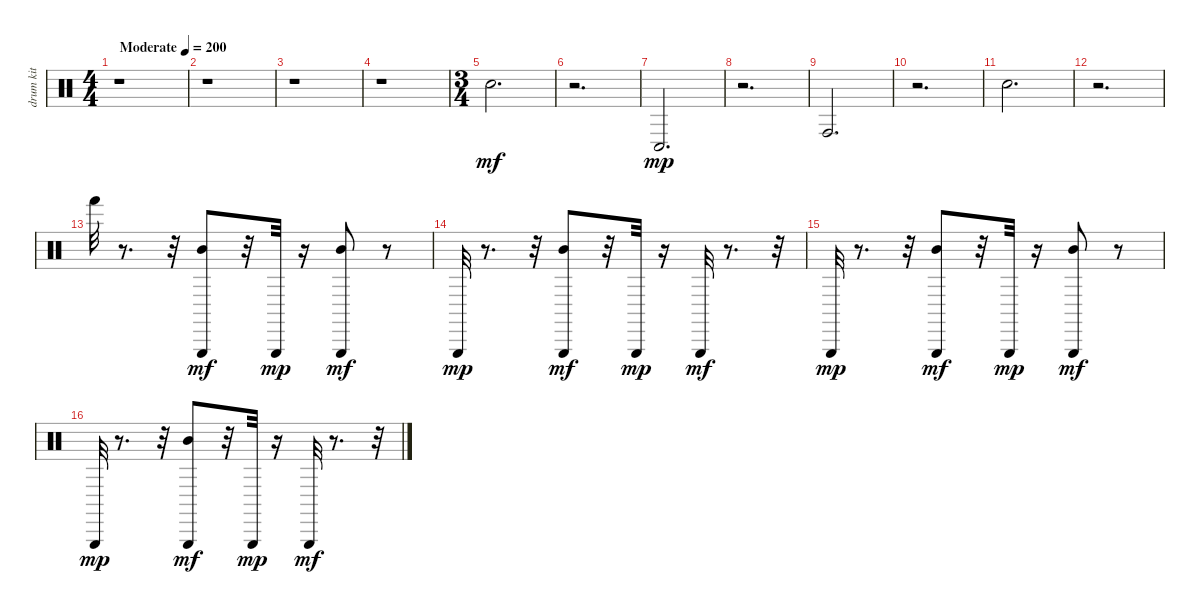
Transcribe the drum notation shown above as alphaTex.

\track (" drum kit (hi-hat/cymbals)" " drum kit ") {instrument percussion}
\staff {score}
\articulation defaults
\ts (4 4)
\tempo (200 "Moderate")
\clef neutral
\ks c
r.1{dy mf} |
r.1 |
r.1 |
r.1 |
\ts (3 4)
"Snare (hit)".2{d balance 8} |
r.2{d} |
"Conga low (hit)".2{d dy mp} |
r.2{d} |
"Conga high (hit)".2{d} |
r.2{d} |
"Snare (hit)".2{d} |
r.2{d} |
"Hand (hit)".32 r.8{d} r.32 ("Mid Tom (hit)" "Triangle (hit)").8{dy mf} r.32 "Triangle (hit)".32{dy mp} r.16 ("Mid Tom (hit)" "Triangle (hit)").8{dy mf} r.8 |
"Triangle (hit)".32{dy mp} r.8{d} r.32 ("Mid Tom (hit)" "Triangle (hit)").8{dy mf} r.32 "Triangle (hit)".32{dy mp} r.16 "Triangle (hit)".32{dy mf} r.8{d} r.32 |
"Triangle (hit)".32{dy mp} r.8{d} r.32 ("Mid Tom (hit)" "Triangle (hit)").8{dy mf} r.32 "Triangle (hit)".32{dy mp} r.16 ("Mid Tom (hit)" "Triangle (hit)").8{dy mf} r.8 |
"Triangle (hit)".32{dy mp} r.8{d} r.32 ("Mid Tom (hit)" "Triangle (hit)").8{dy mf} r.32 "Triangle (hit)".32{dy mp} r.16 "Triangle (hit)".32{dy mf} r.8{d} r.32
